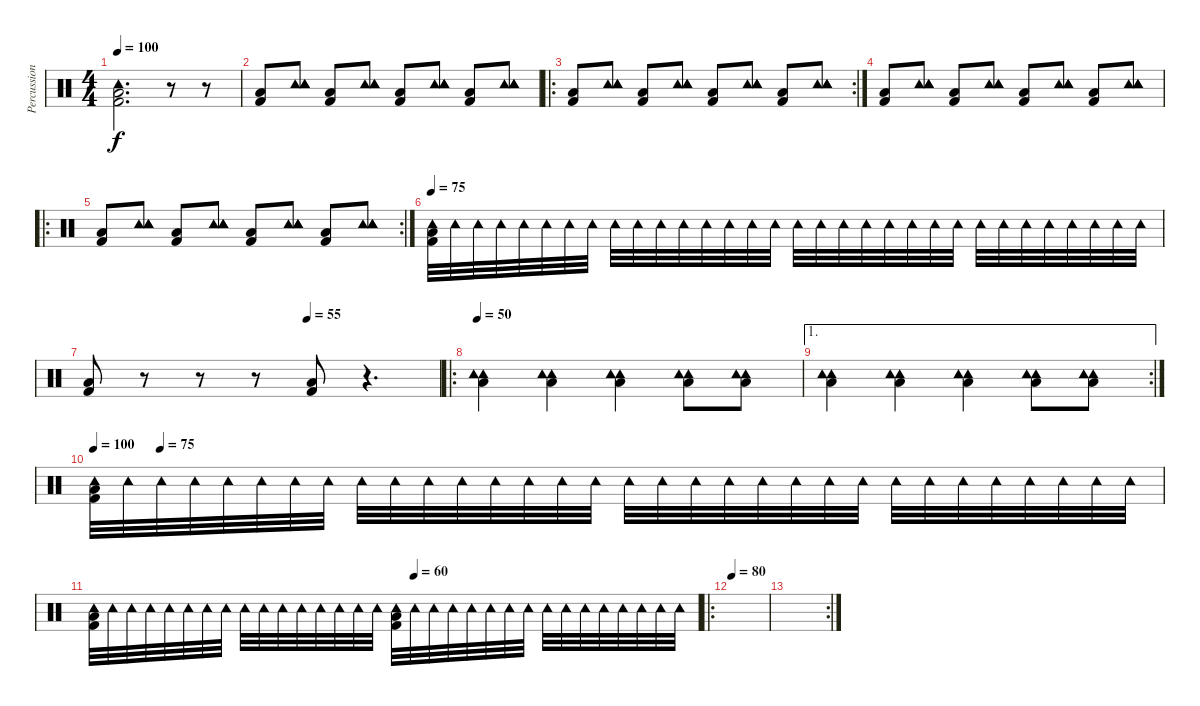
\track ("Percussion" "Percussion") {instrument percussion}
\staff {score}
\articulation defaults
\ts (4 4)
\tempo 100
\clef neutral
\ks c
("Tambourine (hit)" "Kick (hit) 2" "Low Floor Tom (hit)").2{d dy f} r.8 r.8 |
("Kick (hit) 2" "Low Floor Tom (hit)").8 ("Tambourine (hit)" "Tambourine (hit)" "Tambourine (hit)" "Tambourine (hit)").8 ("Kick (hit) 2" "Low Floor Tom (hit)").8 ("Tambourine (hit)" "Tambourine (hit)" "Tambourine (hit)" "Tambourine (hit)").8 ("Kick (hit) 2" "Low Floor Tom (hit)").8 ("Tambourine (hit)" "Tambourine (hit)" "Tambourine (hit)" "Tambourine (hit)").8 ("Kick (hit) 2" "Low Floor Tom (hit)").8 ("Tambourine (hit)" "Tambourine (hit)" "Tambourine (hit)" "Tambourine (hit)").8 |
\ro
\rc 2
("Kick (hit) 2" "Low Floor Tom (hit)").8 ("Tambourine (hit)" "Tambourine (hit)" "Tambourine (hit)" "Tambourine (hit)").8 ("Kick (hit) 2" "Low Floor Tom (hit)").8 ("Tambourine (hit)" "Tambourine (hit)" "Tambourine (hit)" "Tambourine (hit)").8 ("Kick (hit) 2" "Low Floor Tom (hit)").8 ("Tambourine (hit)" "Tambourine (hit)" "Tambourine (hit)" "Tambourine (hit)").8 ("Kick (hit) 2" "Low Floor Tom (hit)").8 ("Tambourine (hit)" "Tambourine (hit)" "Tambourine (hit)" "Tambourine (hit)").8 |
("Kick (hit) 2" "Low Floor Tom (hit)").8 ("Tambourine (hit)" "Tambourine (hit)" "Tambourine (hit)" "Tambourine (hit)").8 ("Kick (hit) 2" "Low Floor Tom (hit)").8 ("Tambourine (hit)" "Tambourine (hit)" "Tambourine (hit)" "Tambourine (hit)").8 ("Kick (hit) 2" "Low Floor Tom (hit)").8 ("Tambourine (hit)" "Tambourine (hit)" "Tambourine (hit)" "Tambourine (hit)").8 ("Kick (hit) 2" "Low Floor Tom (hit)").8 ("Tambourine (hit)" "Tambourine (hit)" "Tambourine (hit)" "Tambourine (hit)").8 |
\ro
\rc 2
("Kick (hit) 2" "Low Floor Tom (hit)").8 ("Tambourine (hit)" "Tambourine (hit)" "Tambourine (hit)" "Tambourine (hit)").8 ("Kick (hit) 2" "Low Floor Tom (hit)").8 ("Tambourine (hit)" "Tambourine (hit)" "Tambourine (hit)" "Tambourine (hit)").8 ("Kick (hit) 2" "Low Floor Tom (hit)").8 ("Tambourine (hit)" "Tambourine (hit)" "Tambourine (hit)" "Tambourine (hit)").8 ("Kick (hit) 2" "Low Floor Tom (hit)").8 ("Tambourine (hit)" "Tambourine (hit)" "Tambourine (hit)" "Tambourine (hit)").8 |
\tempo 75
("Tambourine (hit)" "Kick (hit) 2" "Low Floor Tom (hit)").32{volume 6} "Tambourine (hit)".32 "Tambourine (hit)".32 "Tambourine (hit)".32 "Tambourine (hit)".32 "Tambourine (hit)".32 "Tambourine (hit)".32 "Tambourine (hit)".32 "Tambourine (hit)".32 "Tambourine (hit)".32 "Tambourine (hit)".32 "Tambourine (hit)".32 "Tambourine (hit)".32 "Tambourine (hit)".32 "Tambourine (hit)".32 "Tambourine (hit)".32 "Tambourine (hit)".32 "Tambourine (hit)".32 "Tambourine (hit)".32 "Tambourine (hit)".32 "Tambourine (hit)".32 "Tambourine (hit)".32 "Tambourine (hit)".32 "Tambourine (hit)".32 "Tambourine (hit)".32 "Tambourine (hit)".32 "Tambourine (hit)".32 "Tambourine (hit)".32 "Tambourine (hit)".32 "Tambourine (hit)".32 "Tambourine (hit)".32 "Tambourine (hit)".32 |
\tempo (55 0.625)
("Kick (hit) 2" "Low Floor Tom (hit)").8 r.8 r.8 r.8 ("Kick (hit) 2" "Low Floor Tom (hit)").8 r.4{d} |
\ro
\tempo 50
("Tambourine (hit)" "Tambourine (hit)" "Low Floor Tom (hit)").4 ("Tambourine (hit)" "Tambourine (hit)" "Low Floor Tom (hit)").4 ("Tambourine (hit)" "Tambourine (hit)" "Low Floor Tom (hit)").4 ("Tambourine (hit)" "Tambourine (hit)" "Low Floor Tom (hit)").8 ("Tambourine (hit)" "Tambourine (hit)" "Low Floor Tom (hit)").8 |
\ae 1
\rc 2
("Tambourine (hit)" "Tambourine (hit)" "Low Floor Tom (hit)").4 ("Tambourine (hit)" "Tambourine (hit)" "Low Floor Tom (hit)").4 ("Tambourine (hit)" "Tambourine (hit)" "Low Floor Tom (hit)").4 ("Tambourine (hit)" "Tambourine (hit)" "Low Floor Tom (hit)").8 ("Tambourine (hit)" "Tambourine (hit)" "Low Floor Tom (hit)").8 |
\tempo 100
\tempo (75 0.0625)
("Tambourine (hit)" "Kick (hit) 2" "Low Floor Tom (hit)").32{volume 6} "Tambourine (hit)".32 "Tambourine (hit)".32 "Tambourine (hit)".32 "Tambourine (hit)".32 "Tambourine (hit)".32 "Tambourine (hit)".32 "Tambourine (hit)".32 "Tambourine (hit)".32 "Tambourine (hit)".32 "Tambourine (hit)".32 "Tambourine (hit)".32 "Tambourine (hit)".32 "Tambourine (hit)".32 "Tambourine (hit)".32 "Tambourine (hit)".32 "Tambourine (hit)".32 "Tambourine (hit)".32 "Tambourine (hit)".32 "Tambourine (hit)".32 "Tambourine (hit)".32 "Tambourine (hit)".32 "Tambourine (hit)".32 "Tambourine (hit)".32 "Tambourine (hit)".32 "Tambourine (hit)".32 "Tambourine (hit)".32 "Tambourine (hit)".32 "Tambourine (hit)".32 "Tambourine (hit)".32 "Tambourine (hit)".32 "Tambourine (hit)".32 |
\tempo (60 0.53125)
("Tambourine (hit)" "Kick (hit) 2" "Low Floor Tom (hit)").32 "Tambourine (hit)".32 "Tambourine (hit)".32 "Tambourine (hit)".32 "Tambourine (hit)".32 "Tambourine (hit)".32 "Tambourine (hit)".32 "Tambourine (hit)".32 "Tambourine (hit)".32 "Tambourine (hit)".32 "Tambourine (hit)".32 "Tambourine (hit)".32 "Tambourine (hit)".32 "Tambourine (hit)".32 "Tambourine (hit)".32 "Tambourine (hit)".32 ("Tambourine (hit)" "Kick (hit) 2" "Low Floor Tom (hit)").32 "Tambourine (hit)".32 "Tambourine (hit)".32 "Tambourine (hit)".32 "Tambourine (hit)".32 "Tambourine (hit)".32 "Tambourine (hit)".32 "Tambourine (hit)".32 "Tambourine (hit)".32 "Tambourine (hit)".32 "Tambourine (hit)".32 "Tambourine (hit)".32 "Tambourine (hit)".32 "Tambourine (hit)".32 "Tambourine (hit)".32 "Tambourine (hit)".32 |
\ro
\tempo 80
|
\rc 2
